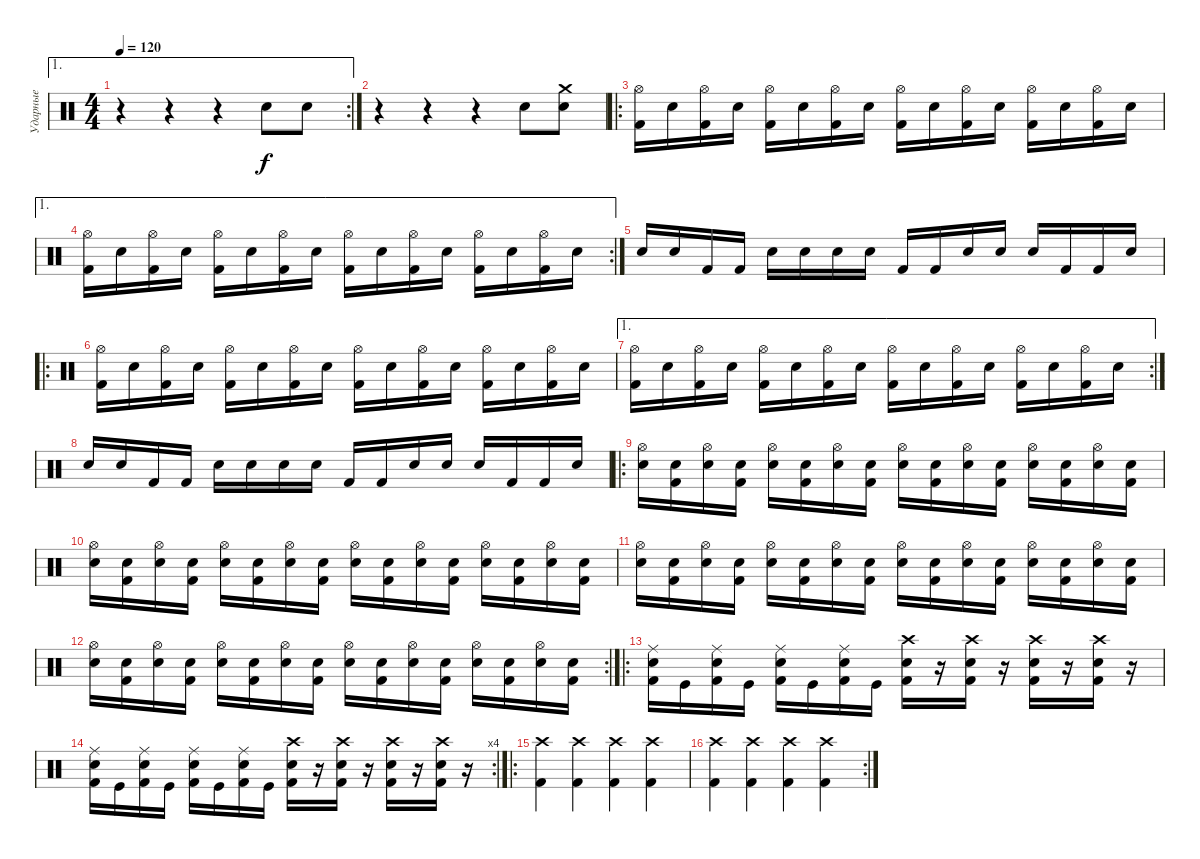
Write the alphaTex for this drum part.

\track ("Ударные" "Ударные") {instrument percussion}
\staff {score}
\articulation defaults
\ae 1
\rc 2
\ts (4 4)
\tempo 120
\clef neutral
\ks c
r.4{dy f} r.4 r.4 "Electric Snare (hit)".8 "Electric Snare (hit)".8 |
r.4 r.4 r.4 "Electric Snare (hit)".8 ("Crash medium (hit)" "Electric Snare (hit)").8 |
\ro
("Hi-Hat (open)" "Kick (hit) 2").16 "Electric Snare (hit)".16 ("Hi-Hat (open)" "Kick (hit) 2").16 "Electric Snare (hit)".16 ("Hi-Hat (open)" "Kick (hit) 2").16 "Electric Snare (hit)".16 ("Hi-Hat (open)" "Kick (hit) 2").16 "Electric Snare (hit)".16 ("Hi-Hat (open)" "Kick (hit) 2").16 "Electric Snare (hit)".16 ("Hi-Hat (open)" "Kick (hit) 2").16 "Electric Snare (hit)".16 ("Hi-Hat (open)" "Kick (hit) 2").16 "Electric Snare (hit)".16 ("Hi-Hat (open)" "Kick (hit) 2").16 "Electric Snare (hit)".16 |
\ae 1
\rc 2
("Hi-Hat (open)" "Kick (hit) 2").16 "Electric Snare (hit)".16 ("Hi-Hat (open)" "Kick (hit) 2").16 "Electric Snare (hit)".16 ("Hi-Hat (open)" "Kick (hit) 2").16 "Electric Snare (hit)".16 ("Hi-Hat (open)" "Kick (hit) 2").16 "Electric Snare (hit)".16 ("Hi-Hat (open)" "Kick (hit) 2").16 "Electric Snare (hit)".16 ("Hi-Hat (open)" "Kick (hit) 2").16 "Electric Snare (hit)".16 ("Hi-Hat (open)" "Kick (hit) 2").16 "Electric Snare (hit)".16 ("Hi-Hat (open)" "Kick (hit) 2").16 "Electric Snare (hit)".16 |
"Snare (hit) 2".16 "Snare (hit) 2".16 "Kick (hit) 2".16 "Kick (hit) 2".16 "Snare (hit) 2".16 "Snare (hit) 2".16 "Snare (hit) 2".16 "Snare (hit) 2".16 "Kick (hit) 2".16 "Kick (hit) 2".16 "Snare (hit) 2".16 "Snare (hit) 2".16 "Snare (hit) 2".16 "Kick (hit) 2".16 "Kick (hit) 2".16 "Snare (hit) 2".16 |
\ro
("Hi-Hat (open)" "Kick (hit) 2").16 "Electric Snare (hit)".16 ("Hi-Hat (open)" "Kick (hit) 2").16 "Electric Snare (hit)".16 ("Hi-Hat (open)" "Kick (hit) 2").16 "Electric Snare (hit)".16 ("Hi-Hat (open)" "Kick (hit) 2").16 "Electric Snare (hit)".16 ("Hi-Hat (open)" "Kick (hit) 2").16 "Electric Snare (hit)".16 ("Hi-Hat (open)" "Kick (hit) 2").16 "Electric Snare (hit)".16 ("Hi-Hat (open)" "Kick (hit) 2").16 "Electric Snare (hit)".16 ("Hi-Hat (open)" "Kick (hit) 2").16 "Electric Snare (hit)".16 |
\ae 1
\rc 2
("Hi-Hat (open)" "Kick (hit) 2").16 "Electric Snare (hit)".16 ("Hi-Hat (open)" "Kick (hit) 2").16 "Electric Snare (hit)".16 ("Hi-Hat (open)" "Kick (hit) 2").16 "Electric Snare (hit)".16 ("Hi-Hat (open)" "Kick (hit) 2").16 "Electric Snare (hit)".16 ("Hi-Hat (open)" "Kick (hit) 2").16 "Electric Snare (hit)".16 ("Hi-Hat (open)" "Kick (hit) 2").16 "Electric Snare (hit)".16 ("Hi-Hat (open)" "Kick (hit) 2").16 "Electric Snare (hit)".16 ("Hi-Hat (open)" "Kick (hit) 2").16 "Electric Snare (hit)".16 |
"Snare (hit) 2".16 "Snare (hit) 2".16 "Kick (hit) 2".16 "Kick (hit) 2".16 "Snare (hit) 2".16 "Snare (hit) 2".16 "Snare (hit) 2".16 "Snare (hit) 2".16 "Kick (hit) 2".16 "Kick (hit) 2".16 "Snare (hit) 2".16 "Snare (hit) 2".16 "Snare (hit) 2".16 "Kick (hit) 2".16 "Kick (hit) 2".16 "Snare (hit) 2".16 |
\ro
("Hi-Hat (open)" "Snare (hit) 2").16 ("Electric Snare (hit)" "Kick (hit) 2").16 ("Hi-Hat (open)" "Snare (hit) 2").16 ("Electric Snare (hit)" "Kick (hit) 2").16 ("Hi-Hat (open)" "Snare (hit) 2").16 ("Electric Snare (hit)" "Kick (hit) 2").16 ("Hi-Hat (open)" "Snare (hit) 2").16 ("Electric Snare (hit)" "Kick (hit) 2").16 ("Hi-Hat (open)" "Snare (hit) 2").16 ("Electric Snare (hit)" "Kick (hit) 2").16 ("Hi-Hat (open)" "Snare (hit) 2").16 ("Electric Snare (hit)" "Kick (hit) 2").16 ("Hi-Hat (open)" "Snare (hit) 2").16 ("Electric Snare (hit)" "Kick (hit) 2").16 ("Hi-Hat (open)" "Snare (hit) 2").16 ("Electric Snare (hit)" "Kick (hit) 2").16 |
("Hi-Hat (open)" "Snare (hit) 2").16 ("Electric Snare (hit)" "Kick (hit) 2").16 ("Hi-Hat (open)" "Snare (hit) 2").16 ("Electric Snare (hit)" "Kick (hit) 2").16 ("Hi-Hat (open)" "Snare (hit) 2").16 ("Electric Snare (hit)" "Kick (hit) 2").16 ("Hi-Hat (open)" "Snare (hit) 2").16 ("Electric Snare (hit)" "Kick (hit) 2").16 ("Hi-Hat (open)" "Snare (hit) 2").16 ("Electric Snare (hit)" "Kick (hit) 2").16 ("Hi-Hat (open)" "Snare (hit) 2").16 ("Electric Snare (hit)" "Kick (hit) 2").16 ("Hi-Hat (open)" "Snare (hit) 2").16 ("Electric Snare (hit)" "Kick (hit) 2").16 ("Hi-Hat (open)" "Snare (hit) 2").16 ("Electric Snare (hit)" "Kick (hit) 2").16 |
("Hi-Hat (open)" "Snare (hit) 2").16 ("Electric Snare (hit)" "Kick (hit) 2").16 ("Hi-Hat (open)" "Snare (hit) 2").16 ("Electric Snare (hit)" "Kick (hit) 2").16 ("Hi-Hat (open)" "Snare (hit) 2").16 ("Electric Snare (hit)" "Kick (hit) 2").16 ("Hi-Hat (open)" "Snare (hit) 2").16 ("Electric Snare (hit)" "Kick (hit) 2").16 ("Hi-Hat (open)" "Snare (hit) 2").16 ("Electric Snare (hit)" "Kick (hit) 2").16 ("Hi-Hat (open)" "Snare (hit) 2").16 ("Electric Snare (hit)" "Kick (hit) 2").16 ("Hi-Hat (open)" "Snare (hit) 2").16 ("Electric Snare (hit)" "Kick (hit) 2").16 ("Hi-Hat (open)" "Snare (hit) 2").16 ("Electric Snare (hit)" "Kick (hit) 2").16 |
\rc 2
("Hi-Hat (open)" "Snare (hit) 2").16 ("Electric Snare (hit)" "Kick (hit) 2").16 ("Hi-Hat (open)" "Snare (hit) 2").16 ("Electric Snare (hit)" "Kick (hit) 2").16 ("Hi-Hat (open)" "Snare (hit) 2").16 ("Electric Snare (hit)" "Kick (hit) 2").16 ("Hi-Hat (open)" "Snare (hit) 2").16 ("Electric Snare (hit)" "Kick (hit) 2").16 ("Hi-Hat (open)" "Snare (hit) 2").16 ("Electric Snare (hit)" "Kick (hit) 2").16 ("Hi-Hat (open)" "Snare (hit) 2").16 ("Electric Snare (hit)" "Kick (hit) 2").16 ("Hi-Hat (open)" "Snare (hit) 2").16 ("Electric Snare (hit)" "Kick (hit) 2").16 ("Hi-Hat (open)" "Snare (hit) 2").16 ("Electric Snare (hit)" "Kick (hit) 2").16 |
\ro
("Ride (middle)" "Electric Snare (hit)" "Kick (hit) 2").16 "Kick (hit)".16 ("Ride (middle)" "Electric Snare (hit)" "Kick (hit) 2").16 "Kick (hit)".16 ("Ride (middle)" "Electric Snare (hit)" "Kick (hit) 2").16 "Kick (hit)".16 ("Ride (middle)" "Electric Snare (hit)" "Kick (hit) 2").16 "Kick (hit)".16 ("Crash high (hit)" "Electric Snare (hit)" "Kick (hit) 2").16 r.16 ("Crash high (hit)" "Electric Snare (hit)" "Kick (hit) 2").16 r.16 ("Crash high (hit)" "Electric Snare (hit)" "Kick (hit) 2").16 r.16 ("Crash high (hit)" "Electric Snare (hit)" "Kick (hit) 2").16 r.16 |
\rc 4
("Ride (middle)" "Electric Snare (hit)" "Kick (hit) 2").16 "Kick (hit)".16 ("Ride (middle)" "Electric Snare (hit)" "Kick (hit) 2").16 "Kick (hit)".16 ("Ride (middle)" "Electric Snare (hit)" "Kick (hit) 2").16 "Kick (hit)".16 ("Ride (middle)" "Electric Snare (hit)" "Kick (hit) 2").16 "Kick (hit)".16 ("Crash high (hit)" "Electric Snare (hit)" "Kick (hit) 2").16 r.16 ("Crash high (hit)" "Electric Snare (hit)" "Kick (hit) 2").16 r.16 ("Crash high (hit)" "Electric Snare (hit)" "Kick (hit) 2").16 r.16 ("Crash high (hit)" "Electric Snare (hit)" "Kick (hit) 2").16 r.16 |
\ro
("Crash high (hit)" "Kick (hit) 2").4 ("Crash high (hit)" "Kick (hit) 2").4 ("Crash high (hit)" "Kick (hit) 2").4 ("Crash high (hit)" "Kick (hit) 2").4 |
\rc 2
("Crash high (hit)" "Kick (hit) 2").4 ("Crash high (hit)" "Kick (hit) 2").4 ("Crash high (hit)" "Kick (hit) 2").4 ("Crash high (hit)" "Kick (hit) 2").4
